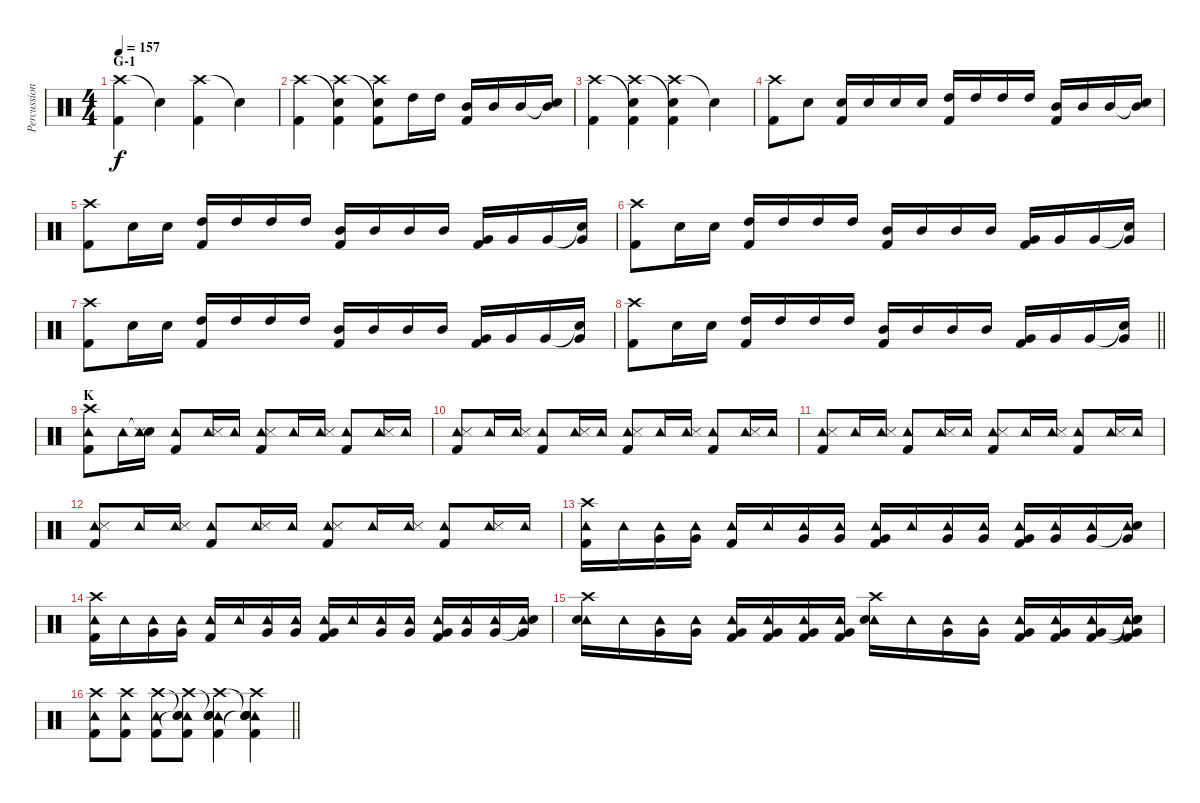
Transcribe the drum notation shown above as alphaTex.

\track ("Percussion" "Percussion") {instrument percussion}
\staff {score}
\articulation defaults
\ts (4 4)
\section ("" "G-1")
\tempo 157
\clef neutral
\ks c
("Crash high (hit)" "Kick (hit) 2").4{dy f} "Snare (hit)"{t}.4 ("Crash high (hit)" "Kick (hit) 2").4 "Snare (hit)"{t}.4 |
("Crash high (hit)" "Kick (hit) 2").4 ("Snare (hit)"{t} "Crash high (hit)" "Kick (hit) 2").4 ("Crash high (hit)" "Snare (hit)"{t} "Kick (hit) 2").8 "High Tom (hit)".16 "High Tom (hit)".16 ("Mid Tom (hit)" "Kick (hit) 2").16 "Mid Tom (hit)".16 "Mid Tom (hit)".16 ("Snare (hit)"{t} "Mid Tom (hit)").16 |
("Crash high (hit)" "Kick (hit) 2").4 ("Snare (hit)"{t} "Crash high (hit)" "Kick (hit) 2").4 ("Crash high (hit)" "Snare (hit)"{t} "Kick (hit) 2").4 "Snare (hit)"{t}.4 |
("Crash high (hit)" "Kick (hit) 2").8 "Electric Snare (hit)".8 ("Electric Snare (hit)" "Kick (hit) 2").16 "Electric Snare (hit)".16 "Electric Snare (hit)".16 "Electric Snare (hit)".16 ("High Tom (hit)" "Kick (hit) 2").16 "High Tom (hit)".16 "High Tom (hit)".16 "High Tom (hit)".16 ("Mid Tom (hit)" "Kick (hit) 2").16 "Mid Tom (hit)".16 "Mid Tom (hit)".16 ("Snare (hit)"{t} "Mid Tom (hit)").16 |
("Crash high (hit)" "Kick (hit) 2").8 "Electric Snare (hit)".16 "Electric Snare (hit)".16 ("High Tom (hit)" "Kick (hit) 2").16 "High Tom (hit)".16 "High Tom (hit)".16 "High Tom (hit)".16 ("Mid Tom (hit)" "Kick (hit) 2").16 "Mid Tom (hit)".16 "Mid Tom (hit)".16 "Mid Tom (hit)".16 ("Kick (hit) 2" "Very Low Tom (hit)").16 "Very Low Tom (hit)".16 "Very Low Tom (hit)".16 ("Snare (hit)"{t} "Very Low Tom (hit)").16 |
("Crash high (hit)" "Kick (hit) 2").8 "Electric Snare (hit)".16 "Electric Snare (hit)".16 ("High Tom (hit)" "Kick (hit) 2").16 "High Tom (hit)".16 "High Tom (hit)".16 "High Tom (hit)".16 ("Mid Tom (hit)" "Kick (hit) 2").16 "Mid Tom (hit)".16 "Mid Tom (hit)".16 "Mid Tom (hit)".16 ("Kick (hit) 2" "Very Low Tom (hit)").16 "Very Low Tom (hit)".16 "Very Low Tom (hit)".16 ("Snare (hit)"{t} "Very Low Tom (hit)").16 |
("Crash high (hit)" "Kick (hit) 2").8 "Electric Snare (hit)".16 "Electric Snare (hit)".16 ("High Tom (hit)" "Kick (hit) 2").16 "High Tom (hit)".16 "High Tom (hit)".16 "High Tom (hit)".16 ("Mid Tom (hit)" "Kick (hit) 2").16 "Mid Tom (hit)".16 "Mid Tom (hit)".16 "Mid Tom (hit)".16 ("Kick (hit) 2" "Very Low Tom (hit)").16 "Very Low Tom (hit)".16 "Very Low Tom (hit)".16 ("Snare (hit)"{t} "Very Low Tom (hit)").16 |
\barLineRight lightlight
("Crash high (hit)" "Kick (hit) 2").8 "Electric Snare (hit)".16 "Electric Snare (hit)".16 ("High Tom (hit)" "Kick (hit) 2").16 "High Tom (hit)".16 "High Tom (hit)".16 "High Tom (hit)".16 ("Mid Tom (hit)" "Kick (hit) 2").16 "Mid Tom (hit)".16 "Mid Tom (hit)".16 "Mid Tom (hit)".16 ("Kick (hit) 2" "Very Low Tom (hit)").16 "Very Low Tom (hit)".16 "Very Low Tom (hit)".16 ("Snare (hit)"{t} "Very Low Tom (hit)").16 |
\section ("" "K")
("Crash high (hit)" "Tambourine (hit)" "Kick (hit) 2").8 "Tambourine (hit)".16 ("Snare (hit)"{t} "Tambourine (hit)" "Snare (side stick) 3").16 ("Tambourine (hit)" "Kick (hit) 2").8 ("Tambourine (hit)" "Snare (side stick) 3").16 "Tambourine (hit)".16 ("Tambourine (hit)" "Snare (side stick) 3" "Kick (hit) 2").8 "Tambourine (hit)".16 ("Tambourine (hit)" "Snare (side stick) 3").16 ("Tambourine (hit)" "Kick (hit) 2").8 ("Tambourine (hit)" "Snare (side stick) 3").16 "Tambourine (hit)".16 |
("Tambourine (hit)" "Snare (side stick) 3" "Kick (hit) 2").8 "Tambourine (hit)".16 ("Tambourine (hit)" "Snare (side stick) 3").16 ("Tambourine (hit)" "Kick (hit) 2").8 ("Tambourine (hit)" "Snare (side stick) 3").16 "Tambourine (hit)".16 ("Tambourine (hit)" "Snare (side stick) 3" "Kick (hit) 2").8 "Tambourine (hit)".16 ("Tambourine (hit)" "Snare (side stick) 3").16 ("Tambourine (hit)" "Kick (hit) 2").8 ("Tambourine (hit)" "Snare (side stick) 3").16 "Tambourine (hit)".16 |
("Tambourine (hit)" "Snare (side stick) 3" "Kick (hit) 2").8 "Tambourine (hit)".16 ("Tambourine (hit)" "Snare (side stick) 3").16 ("Tambourine (hit)" "Kick (hit) 2").8 ("Tambourine (hit)" "Snare (side stick) 3").16 "Tambourine (hit)".16 ("Tambourine (hit)" "Snare (side stick) 3" "Kick (hit) 2").8 "Tambourine (hit)".16 ("Tambourine (hit)" "Snare (side stick) 3").16 ("Tambourine (hit)" "Kick (hit) 2").8 ("Tambourine (hit)" "Snare (side stick) 3").16 "Tambourine (hit)".16 |
("Tambourine (hit)" "Snare (side stick) 3" "Kick (hit) 2").8 "Tambourine (hit)".16 ("Tambourine (hit)" "Snare (side stick) 3").16 ("Tambourine (hit)" "Kick (hit) 2").8 ("Tambourine (hit)" "Snare (side stick) 3").16 "Tambourine (hit)".16 ("Tambourine (hit)" "Snare (side stick) 3" "Kick (hit) 2").8 "Tambourine (hit)".16 ("Tambourine (hit)" "Snare (side stick) 3").16 ("Tambourine (hit)" "Kick (hit) 2").8 ("Tambourine (hit)" "Snare (side stick) 3").16 "Tambourine (hit)".16 |
("Tambourine (hit)" "Crash high (hit)" "Kick (hit) 2").16 "Tambourine (hit)".16 ("Tambourine (hit)" "Very Low Tom (hit)").16 ("Tambourine (hit)" "Very Low Tom (hit)").16 ("Tambourine (hit)" "Kick (hit) 2").16 "Tambourine (hit)".16 ("Tambourine (hit)" "Very Low Tom (hit)").16 ("Tambourine (hit)" "Very Low Tom (hit)").16 ("Tambourine (hit)" "Very Low Tom (hit)" "Kick (hit) 2").16 "Tambourine (hit)".16 ("Tambourine (hit)" "Very Low Tom (hit)").16 ("Tambourine (hit)" "Very Low Tom (hit)").16 ("Tambourine (hit)" "Very Low Tom (hit)" "Kick (hit) 2").16 ("Tambourine (hit)" "Very Low Tom (hit)").16 ("Tambourine (hit)" "Very Low Tom (hit)").16 ("Tambourine (hit)" "Snare (hit)"{t} "Very Low Tom (hit)").16 |
("Tambourine (hit)" "Crash high (hit)" "Kick (hit) 2").16 "Tambourine (hit)".16 ("Tambourine (hit)" "Very Low Tom (hit)").16 ("Tambourine (hit)" "Very Low Tom (hit)").16 ("Tambourine (hit)" "Kick (hit) 2").16 "Tambourine (hit)".16 ("Tambourine (hit)" "Very Low Tom (hit)").16 ("Tambourine (hit)" "Very Low Tom (hit)").16 ("Tambourine (hit)" "Very Low Tom (hit)" "Kick (hit) 2").16 "Tambourine (hit)".16 ("Tambourine (hit)" "Very Low Tom (hit)").16 ("Tambourine (hit)" "Very Low Tom (hit)").16 ("Tambourine (hit)" "Very Low Tom (hit)" "Kick (hit) 2").16 ("Tambourine (hit)" "Very Low Tom (hit)").16 ("Tambourine (hit)" "Very Low Tom (hit)").16 ("Tambourine (hit)" "Snare (hit)"{t} "Very Low Tom (hit)").16 |
("Tambourine (hit)" "Crash high (hit)" "Electric Snare (hit)").16 "Tambourine (hit)".16 ("Tambourine (hit)" "Very Low Tom (hit)").16 ("Tambourine (hit)" "Very Low Tom (hit)").16 ("Tambourine (hit)" "Very Low Tom (hit)" "Kick (hit) 2").16 ("Tambourine (hit)" "Very Low Tom (hit)" "Kick (hit) 2").16 ("Tambourine (hit)" "Very Low Tom (hit)" "Kick (hit) 2").16 ("Tambourine (hit)" "Very Low Tom (hit)" "Kick (hit) 2").16 ("Tambourine (hit)" "Crash high (hit)" "Electric Snare (hit)").16 "Tambourine (hit)".16 ("Tambourine (hit)" "Very Low Tom (hit)").16 ("Tambourine (hit)" "Very Low Tom (hit)").16 ("Tambourine (hit)" "Very Low Tom (hit)" "Kick (hit) 2").16 ("Tambourine (hit)" "Very Low Tom (hit)" "Kick (hit) 2").16 ("Tambourine (hit)" "Very Low Tom (hit)" "Kick (hit) 2").16 ("Tambourine (hit)" "Snare (hit)"{t} "Snare (hit)"{t} "Very Low Tom (hit)" "Kick (hit) 2").16 |
\barLineRight lightlight
("Tambourine (hit)" "Crash high (hit)" "Kick (hit) 2").8 ("Tambourine (hit)" "Crash high (hit)" "Kick (hit) 2").8 ("Tambourine (hit)" "Crash high (hit)" "Kick (hit) 2").8 ("Tambourine (hit)" "Snare (hit)"{t} "Snare (hit)"{t} "Crash high (hit)" "Kick (hit) 2").8 ("Tambourine (hit)" "Crash high (hit)" "Electric Snare (hit)" "Snare (hit)"{t} "Kick (hit) 2").4 ("Tambourine (hit)" "Snare (hit)"{t} "Crash high (hit)" "Electric Snare (hit)" "Snare (hit)"{t} "Kick (hit) 2").4
